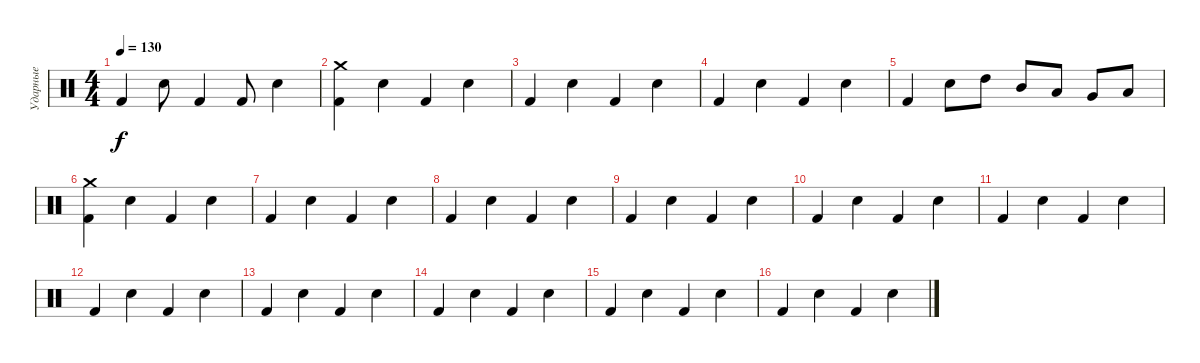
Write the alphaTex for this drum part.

\track ("Ударные" "Ударные") {instrument percussion}
\staff {score}
\articulation defaults
\ts (4 4)
\tempo 130
\clef neutral
\ks c "Kick (hit) 2".4{dy f} "Snare (hit) 2".8 "Kick (hit) 2".4 "Kick (hit) 2".8 "Snare (hit) 2".4
|
("Kick (hit) 2" "Crash medium (hit)").4 "Snare (hit) 2".4 "Kick (hit) 2".4 "Snare (hit) 2".4 |
"Kick (hit) 2".4 "Snare (hit) 2".4 "Kick (hit) 2".4 "Snare (hit) 2".4 |
"Kick (hit) 2".4 "Snare (hit) 2".4 "Kick (hit) 2".4 "Snare (hit) 2".4 |
"Kick (hit) 2".4 "Snare (hit) 2".8 "High Tom (hit)".8 "Mid Tom (hit)".8 "Low Tom (hit)".8 "Very Low Tom (hit)".8 "Low Floor Tom (hit)".8 |
("Kick (hit) 2" "Crash medium (hit)").4 "Snare (hit) 2".4 "Kick (hit) 2".4 "Snare (hit) 2".4 |
"Kick (hit) 2".4 "Snare (hit) 2".4 "Kick (hit) 2".4 "Snare (hit) 2".4 |
"Kick (hit) 2".4 "Snare (hit) 2".4 "Kick (hit) 2".4 "Snare (hit) 2".4 |
"Kick (hit) 2".4 "Snare (hit) 2".4 "Kick (hit) 2".4 "Snare (hit) 2".4 |
"Kick (hit) 2".4 "Snare (hit) 2".4 "Kick (hit) 2".4 "Snare (hit) 2".4 |
"Kick (hit) 2".4 "Snare (hit) 2".4 "Kick (hit) 2".4 "Snare (hit) 2".4 |
"Kick (hit) 2".4 "Snare (hit) 2".4 "Kick (hit) 2".4 "Snare (hit) 2".4 |
"Kick (hit) 2".4 "Snare (hit) 2".4 "Kick (hit) 2".4 "Snare (hit) 2".4 |
"Kick (hit) 2".4 "Snare (hit) 2".4 "Kick (hit) 2".4 "Snare (hit) 2".4 |
"Kick (hit) 2".4 "Snare (hit) 2".4 "Kick (hit) 2".4 "Snare (hit) 2".4 |
"Kick (hit) 2".4 "Snare (hit) 2".4 "Kick (hit) 2".4 "Snare (hit) 2".4
